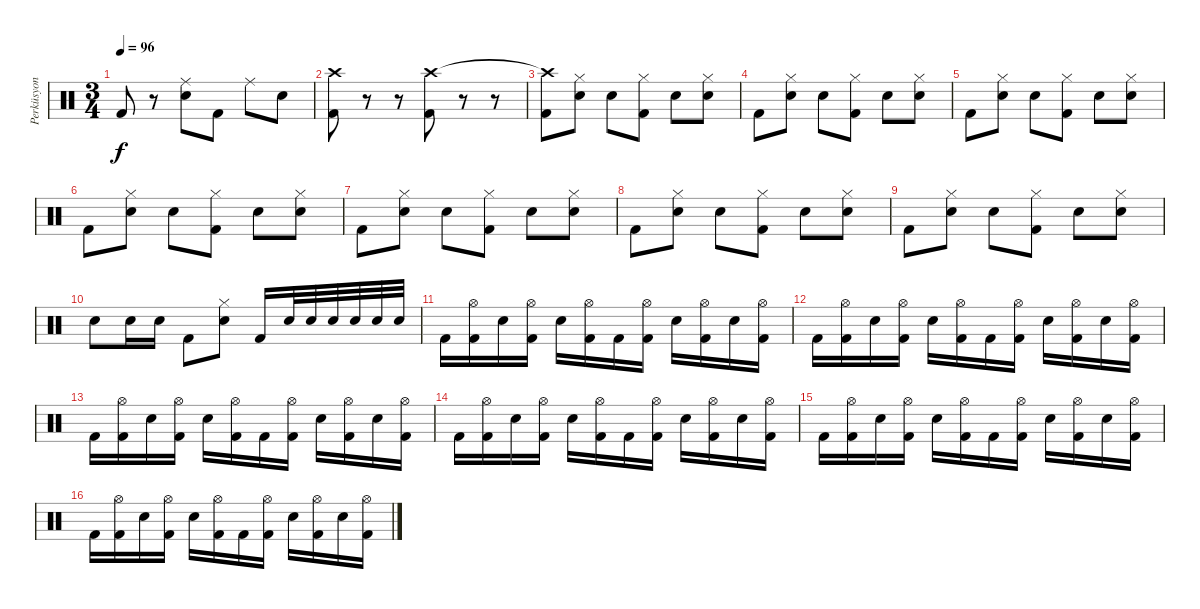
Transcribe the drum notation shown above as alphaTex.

\track ("Perküsyon" "Perküsyon") {instrument percussion}
\staff {score}
\articulation defaults
\ts (3 4)
\tempo 96
\clef neutral
\ks c "Kick (hit) 2".8{dy f}
r.8 ("Snare (hit) 2" "Ride (middle)").8 "Kick (hit) 2".8 "Ride (middle)".8 "Snare (hit) 2".8 |
("Kick (hit) 2" "Crash high (hit)").8 r.8 r.8 ("Kick (hit) 2" "Crash high (hit)").8 r.8 r.8 |
("Kick (hit) 2" "Crash high (hit)"{t}).8 ("Snare (hit) 2" "Hi-Hat (closed)").8 "Snare (hit) 2".8 ("Kick (hit) 2" "Hi-Hat (closed)").8 "Snare (hit) 2".8 ("Snare (hit) 2" "Hi-Hat (closed)").8 |
"Kick (hit) 2".8 ("Snare (hit) 2" "Hi-Hat (closed)").8 "Snare (hit) 2".8 ("Kick (hit) 2" "Hi-Hat (closed)").8 "Snare (hit) 2".8 ("Snare (hit) 2" "Hi-Hat (closed)").8 |
"Kick (hit) 2".8 ("Snare (hit) 2" "Hi-Hat (closed)").8 "Snare (hit) 2".8 ("Kick (hit) 2" "Hi-Hat (closed)").8 "Snare (hit) 2".8 ("Snare (hit) 2" "Hi-Hat (closed)").8 |
"Kick (hit) 2".8 ("Snare (hit) 2" "Hi-Hat (closed)").8 "Snare (hit) 2".8 ("Kick (hit) 2" "Hi-Hat (closed)").8 "Snare (hit) 2".8 ("Snare (hit) 2" "Hi-Hat (closed)").8 |
"Kick (hit) 2".8 ("Snare (hit) 2" "Hi-Hat (closed)").8 "Snare (hit) 2".8 ("Kick (hit) 2" "Hi-Hat (closed)").8 "Snare (hit) 2".8 ("Snare (hit) 2" "Hi-Hat (closed)").8 |
"Kick (hit) 2".8 ("Snare (hit) 2" "Hi-Hat (closed)").8 "Snare (hit) 2".8 ("Kick (hit) 2" "Hi-Hat (closed)").8 "Snare (hit) 2".8 ("Snare (hit) 2" "Hi-Hat (closed)").8 |
"Kick (hit) 2".8 ("Snare (hit) 2" "Hi-Hat (closed)").8 "Snare (hit) 2".8 ("Kick (hit) 2" "Hi-Hat (closed)").8 "Snare (hit) 2".8 ("Snare (hit) 2" "Hi-Hat (closed)").8 |
"Snare (hit) 2".8 "Snare (hit) 2".16 "Snare (hit) 2".16 "Kick (hit) 2".8 ("Snare (hit) 2" "Hi-Hat (closed)").8 "Kick (hit) 2".16 "Snare (hit) 2".32 "Snare (hit) 2".32 "Snare (hit) 2".32 "Snare (hit) 2".32 "Snare (hit) 2".32 "Snare (hit) 2".32 |
"Kick (hit) 2".16 ("Kick (hit) 2" "Hi-Hat (open)").16 "Snare (hit) 2".16 ("Kick (hit) 2" "Hi-Hat (open)").16 "Snare (hit) 2".16 ("Kick (hit) 2" "Hi-Hat (open)").16 "Kick (hit) 2".16 ("Kick (hit) 2" "Hi-Hat (open)").16 "Snare (hit) 2".16 ("Kick (hit) 2" "Hi-Hat (open)").16 "Snare (hit) 2".16 ("Kick (hit) 2" "Hi-Hat (open)").16 |
"Kick (hit) 2".16 ("Kick (hit) 2" "Hi-Hat (open)").16 "Snare (hit) 2".16 ("Kick (hit) 2" "Hi-Hat (open)").16 "Snare (hit) 2".16 ("Kick (hit) 2" "Hi-Hat (open)").16 "Kick (hit) 2".16 ("Kick (hit) 2" "Hi-Hat (open)").16 "Snare (hit) 2".16 ("Kick (hit) 2" "Hi-Hat (open)").16 "Snare (hit) 2".16 ("Kick (hit) 2" "Hi-Hat (open)").16 |
"Kick (hit) 2".16 ("Kick (hit) 2" "Hi-Hat (open)").16 "Snare (hit) 2".16 ("Kick (hit) 2" "Hi-Hat (open)").16 "Snare (hit) 2".16 ("Kick (hit) 2" "Hi-Hat (open)").16 "Kick (hit) 2".16 ("Kick (hit) 2" "Hi-Hat (open)").16 "Snare (hit) 2".16 ("Kick (hit) 2" "Hi-Hat (open)").16 "Snare (hit) 2".16 ("Kick (hit) 2" "Hi-Hat (open)").16 |
"Kick (hit) 2".16 ("Kick (hit) 2" "Hi-Hat (open)").16 "Snare (hit) 2".16 ("Kick (hit) 2" "Hi-Hat (open)").16 "Snare (hit) 2".16 ("Kick (hit) 2" "Hi-Hat (open)").16 "Kick (hit) 2".16 ("Kick (hit) 2" "Hi-Hat (open)").16 "Snare (hit) 2".16 ("Kick (hit) 2" "Hi-Hat (open)").16 "Snare (hit) 2".16 ("Kick (hit) 2" "Hi-Hat (open)").16 |
"Kick (hit) 2".16 ("Kick (hit) 2" "Hi-Hat (open)").16 "Snare (hit) 2".16 ("Kick (hit) 2" "Hi-Hat (open)").16 "Snare (hit) 2".16 ("Kick (hit) 2" "Hi-Hat (open)").16 "Kick (hit) 2".16 ("Kick (hit) 2" "Hi-Hat (open)").16 "Snare (hit) 2".16 ("Kick (hit) 2" "Hi-Hat (open)").16 "Snare (hit) 2".16 ("Kick (hit) 2" "Hi-Hat (open)").16 |
"Kick (hit) 2".16 ("Kick (hit) 2" "Hi-Hat (open)").16 "Snare (hit) 2".16 ("Kick (hit) 2" "Hi-Hat (open)").16 "Snare (hit) 2".16 ("Kick (hit) 2" "Hi-Hat (open)").16 "Kick (hit) 2".16 ("Kick (hit) 2" "Hi-Hat (open)").16 "Snare (hit) 2".16 ("Kick (hit) 2" "Hi-Hat (open)").16 "Snare (hit) 2".16 ("Kick (hit) 2" "Hi-Hat (open)").16
